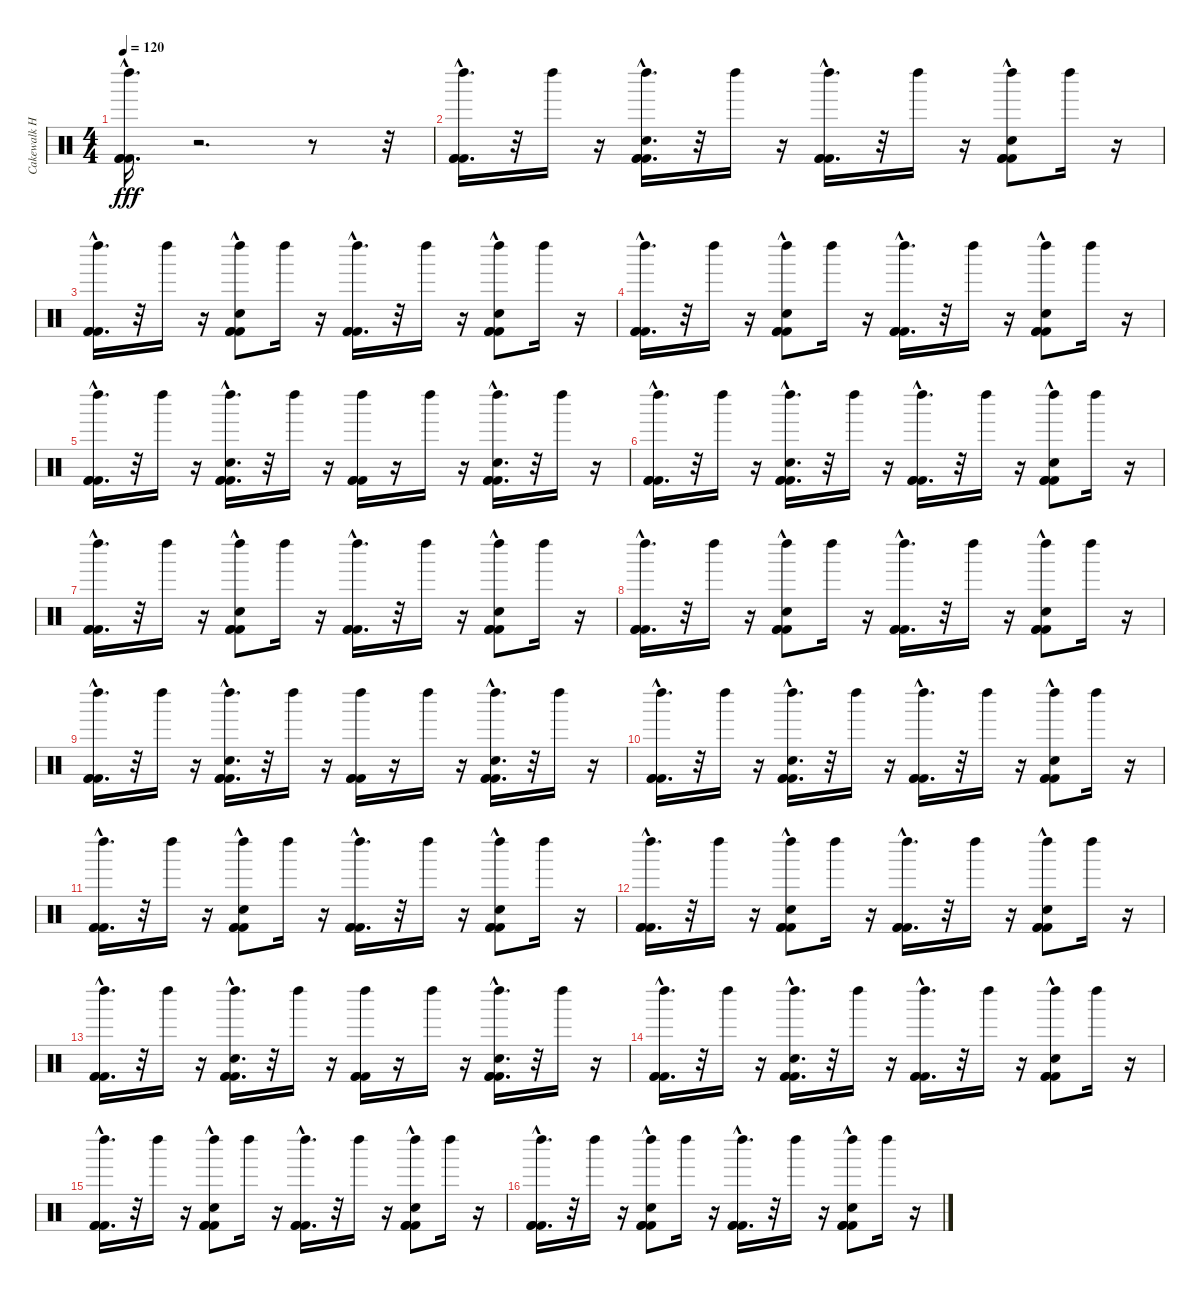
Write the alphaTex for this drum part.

\track ("Cakewalk Home Studio 5.0" "Cakewalk H") {instrument percussion}
\staff {score}
\articulation defaults
\ts (4 4)
\tempo 120
\clef neutral
\ks c
("Kick (hit) 2"{hac} "Left Maraca (hit)" "Kick (hit) 2"{hac} "Kick (hit) 2"{hac}).16{d dy fff} r.2{d} r.8 r.32 |
("Kick (hit) 2"{hac} "Left Maraca (hit)" "Kick (hit) 2"{hac} "Kick (hit) 2"{hac}).16{d} r.32 "Left Maraca (hit)".16 r.16 ("Kick (hit) 2"{hac} "Left Maraca (hit)" "Hand Clap (hit)"{hac} "Kick (hit) 2"{hac} "Kick (hit) 2"{hac}).16{d} r.32 "Left Maraca (hit)".16 r.16 ("Kick (hit) 2"{hac} "Left Maraca (hit)" "Kick (hit) 2"{hac} "Kick (hit) 2"{hac}).16{d} r.32 "Left Maraca (hit)".16 r.16 ("Kick (hit) 2"{hac} "Left Maraca (hit)" "Hand Clap (hit)" "Kick (hit) 2"{hac} "Kick (hit) 2"{hac}).8 "Left Maraca (hit)".16 r.16 |
("Left Maraca (hit)" "Kick (hit) 2"{hac} "Kick (hit) 2"{hac} "Kick (hit) 2"{hac}).16{d} r.32 "Left Maraca (hit)".16 r.16 ("Kick (hit) 2"{hac} "Left Maraca (hit)" "Hand Clap (hit)" "Kick (hit) 2"{hac} "Kick (hit) 2"{hac}).8 "Left Maraca (hit)".16 r.16 ("Kick (hit) 2"{hac} "Left Maraca (hit)" "Kick (hit) 2"{hac} "Kick (hit) 2"{hac}).16{d} r.32 "Left Maraca (hit)".16 r.16 ("Hand Clap (hit)" "Kick (hit) 2"{hac} "Left Maraca (hit)" "Kick (hit) 2"{hac} "Kick (hit) 2"{hac}).8 "Left Maraca (hit)".16 r.16 |
("Kick (hit) 2"{hac} "Left Maraca (hit)" "Kick (hit) 2"{hac} "Kick (hit) 2"{hac}).16{d} r.32 "Left Maraca (hit)".16 r.16 ("Kick (hit) 2"{hac} "Hand Clap (hit)" "Left Maraca (hit)" "Kick (hit) 2"{hac} "Kick (hit) 2"{hac}).8 "Left Maraca (hit)".16 r.16 ("Kick (hit) 2"{hac} "Left Maraca (hit)" "Kick (hit) 2"{hac} "Kick (hit) 2"{hac}).16{d} r.32 "Left Maraca (hit)".16 r.16 ("Kick (hit) 2"{hac} "Hand Clap (hit)" "Left Maraca (hit)" "Kick (hit) 2"{hac} "Kick (hit) 2"{hac}).8 "Left Maraca (hit)".16 r.16 |
("Kick (hit) 2"{hac} "Left Maraca (hit)" "Kick (hit) 2"{hac} "Kick (hit) 2"{hac}).16{d} r.32 "Left Maraca (hit)".16 r.16 ("Left Maraca (hit)" "Kick (hit) 2"{hac} "Hand Clap (hit)"{hac} "Kick (hit) 2"{hac} "Kick (hit) 2"{hac}).16{d} r.32 "Left Maraca (hit)".16 r.16 ("Left Maraca (hit)" "Kick (hit) 2" "Kick (hit) 2" "Kick (hit) 2").16 r.16 "Left Maraca (hit)".16 r.16 ("Hand Clap (hit)"{hac} "Left Maraca (hit)" "Kick (hit) 2"{hac} "Kick (hit) 2"{hac} "Kick (hit) 2"{hac}).16{d} r.32 "Left Maraca (hit)".16 r.16 |
("Kick (hit) 2"{hac} "Left Maraca (hit)" "Kick (hit) 2"{hac} "Kick (hit) 2"{hac}).16{d} r.32 "Left Maraca (hit)".16 r.16 ("Kick (hit) 2"{hac} "Left Maraca (hit)" "Hand Clap (hit)"{hac} "Kick (hit) 2"{hac} "Kick (hit) 2"{hac}).16{d} r.32 "Left Maraca (hit)".16 r.16 ("Kick (hit) 2"{hac} "Left Maraca (hit)" "Kick (hit) 2"{hac} "Kick (hit) 2"{hac}).16{d} r.32 "Left Maraca (hit)".16 r.16 ("Kick (hit) 2"{hac} "Left Maraca (hit)" "Hand Clap (hit)" "Kick (hit) 2"{hac} "Kick (hit) 2"{hac}).8 "Left Maraca (hit)".16 r.16 |
("Left Maraca (hit)" "Kick (hit) 2"{hac} "Kick (hit) 2"{hac} "Kick (hit) 2"{hac}).16{d} r.32 "Left Maraca (hit)".16 r.16 ("Kick (hit) 2"{hac} "Left Maraca (hit)" "Hand Clap (hit)" "Kick (hit) 2"{hac} "Kick (hit) 2"{hac}).8 "Left Maraca (hit)".16 r.16 ("Kick (hit) 2"{hac} "Left Maraca (hit)" "Kick (hit) 2"{hac} "Kick (hit) 2"{hac}).16{d} r.32 "Left Maraca (hit)".16 r.16 ("Hand Clap (hit)" "Kick (hit) 2"{hac} "Left Maraca (hit)" "Kick (hit) 2"{hac} "Kick (hit) 2"{hac}).8 "Left Maraca (hit)".16 r.16 |
("Kick (hit) 2"{hac} "Left Maraca (hit)" "Kick (hit) 2"{hac} "Kick (hit) 2"{hac}).16{d} r.32 "Left Maraca (hit)".16 r.16 ("Kick (hit) 2"{hac} "Hand Clap (hit)" "Left Maraca (hit)" "Kick (hit) 2"{hac} "Kick (hit) 2"{hac}).8 "Left Maraca (hit)".16 r.16 ("Kick (hit) 2"{hac} "Left Maraca (hit)" "Kick (hit) 2"{hac} "Kick (hit) 2"{hac}).16{d} r.32 "Left Maraca (hit)".16 r.16 ("Kick (hit) 2"{hac} "Hand Clap (hit)" "Left Maraca (hit)" "Kick (hit) 2"{hac} "Kick (hit) 2"{hac}).8 "Left Maraca (hit)".16 r.16 |
("Kick (hit) 2"{hac} "Left Maraca (hit)" "Kick (hit) 2"{hac} "Kick (hit) 2"{hac}).16{d} r.32 "Left Maraca (hit)".16 r.16 ("Left Maraca (hit)" "Kick (hit) 2"{hac} "Hand Clap (hit)"{hac} "Kick (hit) 2"{hac} "Kick (hit) 2"{hac}).16{d} r.32 "Left Maraca (hit)".16 r.16 ("Left Maraca (hit)" "Kick (hit) 2" "Kick (hit) 2" "Kick (hit) 2").16 r.16 "Left Maraca (hit)".16 r.16 ("Hand Clap (hit)"{hac} "Left Maraca (hit)" "Kick (hit) 2"{hac} "Kick (hit) 2"{hac} "Kick (hit) 2"{hac}).16{d} r.32 "Left Maraca (hit)".16 r.16 |
("Kick (hit) 2"{hac} "Left Maraca (hit)" "Kick (hit) 2"{hac} "Kick (hit) 2"{hac}).16{d} r.32 "Left Maraca (hit)".16 r.16 ("Kick (hit) 2"{hac} "Left Maraca (hit)" "Hand Clap (hit)"{hac} "Kick (hit) 2"{hac} "Kick (hit) 2"{hac}).16{d} r.32 "Left Maraca (hit)".16 r.16 ("Kick (hit) 2"{hac} "Left Maraca (hit)" "Kick (hit) 2"{hac} "Kick (hit) 2"{hac}).16{d} r.32 "Left Maraca (hit)".16 r.16 ("Kick (hit) 2"{hac} "Left Maraca (hit)" "Hand Clap (hit)" "Kick (hit) 2"{hac} "Kick (hit) 2"{hac}).8 "Left Maraca (hit)".16 r.16 |
("Left Maraca (hit)" "Kick (hit) 2"{hac} "Kick (hit) 2"{hac} "Kick (hit) 2"{hac}).16{d} r.32 "Left Maraca (hit)".16 r.16 ("Kick (hit) 2"{hac} "Left Maraca (hit)" "Hand Clap (hit)" "Kick (hit) 2"{hac} "Kick (hit) 2"{hac}).8 "Left Maraca (hit)".16 r.16 ("Kick (hit) 2"{hac} "Left Maraca (hit)" "Kick (hit) 2"{hac} "Kick (hit) 2"{hac}).16{d} r.32 "Left Maraca (hit)".16 r.16 ("Hand Clap (hit)" "Kick (hit) 2"{hac} "Left Maraca (hit)" "Kick (hit) 2"{hac} "Kick (hit) 2"{hac}).8 "Left Maraca (hit)".16 r.16 |
("Kick (hit) 2"{hac} "Left Maraca (hit)" "Kick (hit) 2"{hac} "Kick (hit) 2"{hac}).16{d} r.32 "Left Maraca (hit)".16 r.16 ("Kick (hit) 2"{hac} "Hand Clap (hit)" "Left Maraca (hit)" "Kick (hit) 2"{hac} "Kick (hit) 2"{hac}).8 "Left Maraca (hit)".16 r.16 ("Kick (hit) 2"{hac} "Left Maraca (hit)" "Kick (hit) 2"{hac} "Kick (hit) 2"{hac}).16{d} r.32 "Left Maraca (hit)".16 r.16 ("Kick (hit) 2"{hac} "Hand Clap (hit)" "Left Maraca (hit)" "Kick (hit) 2"{hac} "Kick (hit) 2"{hac}).8 "Left Maraca (hit)".16 r.16 |
("Kick (hit) 2"{hac} "Left Maraca (hit)" "Kick (hit) 2"{hac} "Kick (hit) 2"{hac}).16{d} r.32 "Left Maraca (hit)".16 r.16 ("Left Maraca (hit)" "Kick (hit) 2"{hac} "Hand Clap (hit)"{hac} "Kick (hit) 2"{hac} "Kick (hit) 2"{hac}).16{d} r.32 "Left Maraca (hit)".16 r.16 ("Left Maraca (hit)" "Kick (hit) 2" "Kick (hit) 2" "Kick (hit) 2").16 r.16 "Left Maraca (hit)".16 r.16 ("Hand Clap (hit)"{hac} "Left Maraca (hit)" "Kick (hit) 2"{hac} "Kick (hit) 2"{hac} "Kick (hit) 2"{hac}).16{d} r.32 "Left Maraca (hit)".16 r.16 |
("Kick (hit) 2"{hac} "Left Maraca (hit)" "Kick (hit) 2"{hac} "Kick (hit) 2"{hac}).16{d} r.32 "Left Maraca (hit)".16 r.16 ("Kick (hit) 2"{hac} "Left Maraca (hit)" "Hand Clap (hit)"{hac} "Kick (hit) 2"{hac} "Kick (hit) 2"{hac}).16{d} r.32 "Left Maraca (hit)".16 r.16 ("Kick (hit) 2"{hac} "Left Maraca (hit)" "Kick (hit) 2"{hac} "Kick (hit) 2"{hac}).16{d} r.32 "Left Maraca (hit)".16 r.16 ("Kick (hit) 2"{hac} "Left Maraca (hit)" "Hand Clap (hit)" "Kick (hit) 2"{hac} "Kick (hit) 2"{hac}).8 "Left Maraca (hit)".16 r.16 |
("Left Maraca (hit)" "Kick (hit) 2"{hac} "Kick (hit) 2"{hac} "Kick (hit) 2"{hac}).16{d} r.32 "Left Maraca (hit)".16 r.16 ("Kick (hit) 2"{hac} "Left Maraca (hit)" "Hand Clap (hit)" "Kick (hit) 2"{hac} "Kick (hit) 2"{hac}).8 "Left Maraca (hit)".16 r.16 ("Kick (hit) 2"{hac} "Left Maraca (hit)" "Kick (hit) 2"{hac} "Kick (hit) 2"{hac}).16{d} r.32 "Left Maraca (hit)".16 r.16 ("Hand Clap (hit)" "Kick (hit) 2"{hac} "Left Maraca (hit)" "Kick (hit) 2"{hac} "Kick (hit) 2"{hac}).8 "Left Maraca (hit)".16 r.16 |
("Kick (hit) 2"{hac} "Left Maraca (hit)" "Kick (hit) 2"{hac} "Kick (hit) 2"{hac}).16{d} r.32 "Left Maraca (hit)".16 r.16 ("Kick (hit) 2"{hac} "Hand Clap (hit)" "Left Maraca (hit)" "Kick (hit) 2"{hac} "Kick (hit) 2"{hac}).8 "Left Maraca (hit)".16 r.16 ("Kick (hit) 2"{hac} "Left Maraca (hit)" "Kick (hit) 2"{hac} "Kick (hit) 2"{hac}).16{d} r.32 "Left Maraca (hit)".16 r.16 ("Kick (hit) 2"{hac} "Hand Clap (hit)" "Left Maraca (hit)" "Kick (hit) 2"{hac} "Kick (hit) 2"{hac}).8 "Left Maraca (hit)".16 r.16
